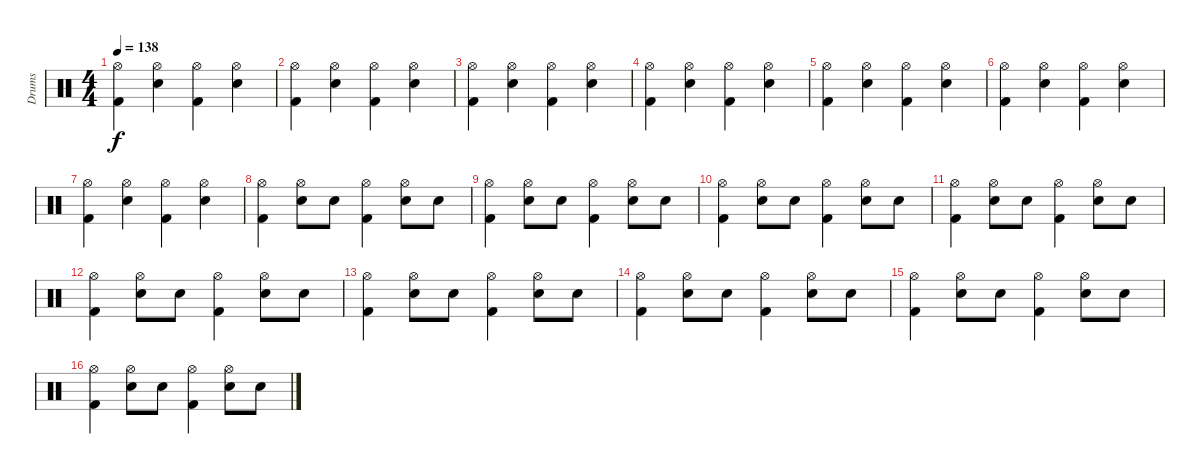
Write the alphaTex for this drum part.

\track ("Drums" "Drums") {instrument percussion}
\staff {score}
\articulation defaults
\ts (4 4)
\tempo 138
\clef neutral
\ks c
("Kick (hit) 2" "Hi-Hat (open)").4{dy f} ("Electric Snare (hit)" "Hi-Hat (open)").4 ("Kick (hit) 2" "Hi-Hat (open)").4 ("Electric Snare (hit)" "Hi-Hat (open)").4 |
("Kick (hit) 2" "Hi-Hat (open)").4 ("Electric Snare (hit)" "Hi-Hat (open)").4 ("Kick (hit) 2" "Hi-Hat (open)").4 ("Electric Snare (hit)" "Hi-Hat (open)").4 |
("Kick (hit) 2" "Hi-Hat (open)").4 ("Electric Snare (hit)" "Hi-Hat (open)").4 ("Kick (hit) 2" "Hi-Hat (open)").4 ("Electric Snare (hit)" "Hi-Hat (open)").4 |
("Kick (hit) 2" "Hi-Hat (open)").4 ("Electric Snare (hit)" "Hi-Hat (open)").4 ("Kick (hit) 2" "Hi-Hat (open)").4 ("Electric Snare (hit)" "Hi-Hat (open)").4 |
("Kick (hit) 2" "Hi-Hat (open)").4 ("Electric Snare (hit)" "Hi-Hat (open)").4 ("Kick (hit) 2" "Hi-Hat (open)").4 ("Electric Snare (hit)" "Hi-Hat (open)").4 |
("Kick (hit) 2" "Hi-Hat (open)").4 ("Electric Snare (hit)" "Hi-Hat (open)").4 ("Kick (hit) 2" "Hi-Hat (open)").4 ("Electric Snare (hit)" "Hi-Hat (open)").4 |
("Kick (hit) 2" "Hi-Hat (open)").4 ("Electric Snare (hit)" "Hi-Hat (open)").4 ("Kick (hit) 2" "Hi-Hat (open)").4 ("Electric Snare (hit)" "Hi-Hat (open)").4 |
("Kick (hit) 2" "Hi-Hat (open)").4 ("Electric Snare (hit)" "Hi-Hat (open)").8 "Electric Snare (hit)".8 ("Kick (hit) 2" "Hi-Hat (open)").4 ("Electric Snare (hit)" "Hi-Hat (open)").8 "Electric Snare (hit)".8 |
("Kick (hit) 2" "Hi-Hat (open)").4 ("Electric Snare (hit)" "Hi-Hat (open)").8 "Electric Snare (hit)".8 ("Kick (hit) 2" "Hi-Hat (open)").4 ("Electric Snare (hit)" "Hi-Hat (open)").8 "Electric Snare (hit)".8 |
("Kick (hit) 2" "Hi-Hat (open)").4 ("Electric Snare (hit)" "Hi-Hat (open)").8 "Electric Snare (hit)".8 ("Kick (hit) 2" "Hi-Hat (open)").4 ("Electric Snare (hit)" "Hi-Hat (open)").8 "Electric Snare (hit)".8 |
("Kick (hit) 2" "Hi-Hat (open)").4 ("Electric Snare (hit)" "Hi-Hat (open)").8 "Electric Snare (hit)".8 ("Kick (hit) 2" "Hi-Hat (open)").4 ("Electric Snare (hit)" "Hi-Hat (open)").8 "Electric Snare (hit)".8 |
("Kick (hit) 2" "Hi-Hat (open)").4 ("Electric Snare (hit)" "Hi-Hat (open)").8 "Electric Snare (hit)".8 ("Kick (hit) 2" "Hi-Hat (open)").4 ("Electric Snare (hit)" "Hi-Hat (open)").8 "Electric Snare (hit)".8 |
("Kick (hit) 2" "Hi-Hat (open)").4 ("Electric Snare (hit)" "Hi-Hat (open)").8 "Electric Snare (hit)".8 ("Kick (hit) 2" "Hi-Hat (open)").4 ("Electric Snare (hit)" "Hi-Hat (open)").8 "Electric Snare (hit)".8 |
("Kick (hit) 2" "Hi-Hat (open)").4 ("Electric Snare (hit)" "Hi-Hat (open)").8 "Electric Snare (hit)".8 ("Kick (hit) 2" "Hi-Hat (open)").4 ("Electric Snare (hit)" "Hi-Hat (open)").8 "Electric Snare (hit)".8 |
("Kick (hit) 2" "Hi-Hat (open)").4 ("Electric Snare (hit)" "Hi-Hat (open)").8 "Electric Snare (hit)".8 ("Kick (hit) 2" "Hi-Hat (open)").4 ("Electric Snare (hit)" "Hi-Hat (open)").8 "Electric Snare (hit)".8 |
("Kick (hit) 2" "Hi-Hat (open)").4 ("Electric Snare (hit)" "Hi-Hat (open)").8 "Electric Snare (hit)".8 ("Kick (hit) 2" "Hi-Hat (open)").4 ("Electric Snare (hit)" "Hi-Hat (open)").8 "Electric Snare (hit)".8
